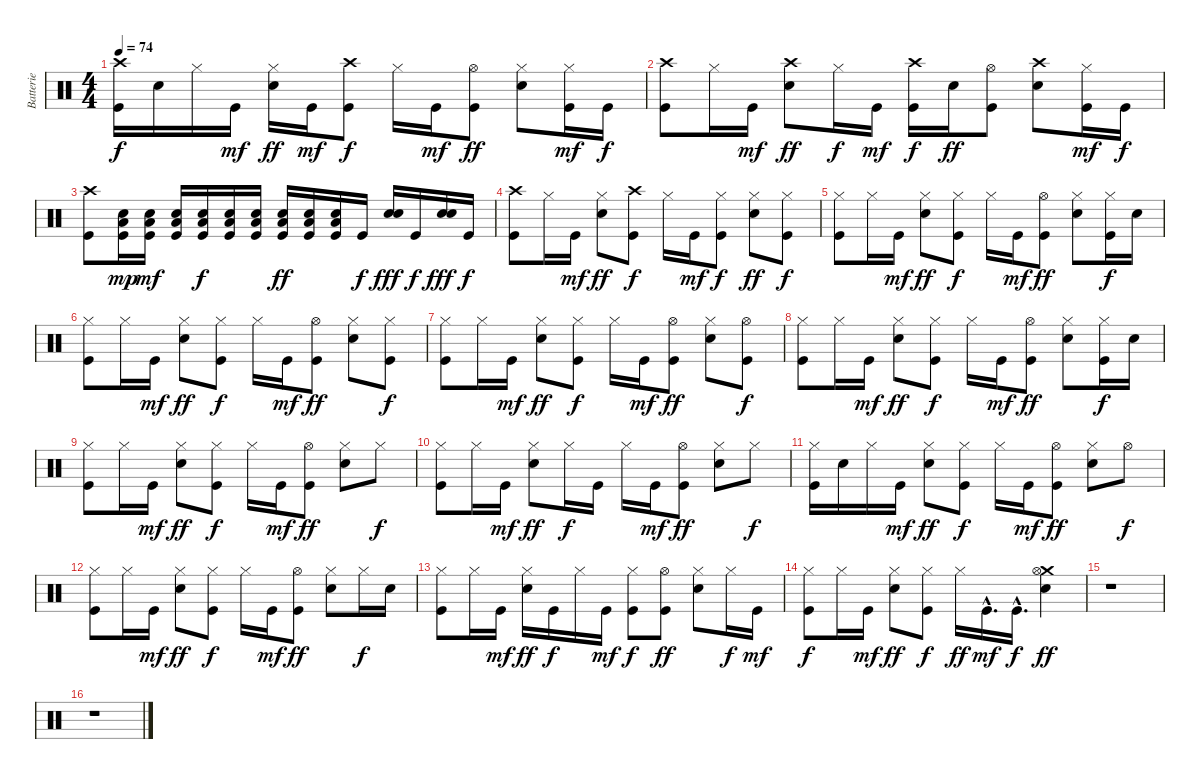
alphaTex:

\track ("Batterie" "Batterie") {instrument percussion}
\staff {score}
\articulation defaults
\ts (4 4)
\tempo 74
\clef neutral
\ks c
("Crash high (hit)" "Kick (hit)").16{dy f} "Snare (hit) 2".16 "Hi-Hat (closed)".16 "Kick (hit)".16{dy mf} ("Hi-Hat (closed)" "Snare (hit) 2").16{dy ff} "Kick (hit)".16{dy mf} ("Crash high (hit)" "Kick (hit)").8{dy f} "Hi-Hat (closed)".16 "Kick (hit)".16{dy mf} ("Hi-Hat (open)" "Kick (hit)").8{dy ff} ("Hi-Hat (closed)" "Snare (hit) 2").8 ("Hi-Hat (closed)" "Kick (hit)").16{dy mf} "Kick (hit)".16{dy f} |
("Crash high (hit)" "Kick (hit)").8 "Hi-Hat (closed)".16 "Kick (hit)".16{dy mf} ("Crash high (hit)" "Snare (hit) 2").8{dy ff} "Hi-Hat (closed)".16{dy f} "Kick (hit)".16{dy mf} ("Crash high (hit)" "Kick (hit)").16{dy f} "Snare (hit) 2".16{dy ff} ("Hi-Hat (open)" "Kick (hit)").8 ("Crash high (hit)" "Snare (hit) 2").8 ("Hi-Hat (closed)" "Kick (hit)").16{dy mf} "Kick (hit)".16{dy f} |
("Crash high (hit)" "Kick (hit)").8 ("Low Floor Tom (hit)" "Snare (hit) 2" "Kick (hit)").16{dy mp} ("Low Floor Tom (hit)" "Snare (hit) 2" "Kick (hit)").16{dy mf} ("Low Floor Tom (hit)" "Snare (hit) 2" "Kick (hit)").16 ("Low Floor Tom (hit)" "Snare (hit) 2" "Kick (hit)").16{dy f} ("Low Floor Tom (hit)" "Snare (hit) 2" "Kick (hit)").16 ("Low Floor Tom (hit)" "Snare (hit) 2" "Kick (hit)").16 ("Low Floor Tom (hit)" "Snare (hit) 2" "Kick (hit)").16{dy ff} ("Low Floor Tom (hit)" "Snare (hit) 2" "Kick (hit)").16 ("Low Floor Tom (hit)" "Snare (hit) 2" "Kick (hit)").16 "Kick (hit)".16{dy f} ("Snare (hit) 2" "Snare (hit) 2").16{bu 240 dy fff} "Kick (hit)".16{dy f} ("Snare (hit) 2" "Snare (hit) 2").16{bu 240 dy fff} "Kick (hit)".16{dy f} |
("Crash high (hit)" "Kick (hit)").8 "Hi-Hat (closed)".16 "Kick (hit)".16{dy mf} ("Hi-Hat (closed)" "Snare (hit) 2").8{dy ff} ("Crash high (hit)" "Kick (hit)").8{dy f} "Hi-Hat (closed)".16 "Kick (hit)".16{dy mf} ("Hi-Hat (closed)" "Kick (hit)").8{dy f} ("Hi-Hat (closed)" "Snare (hit) 2").8{dy ff} ("Hi-Hat (closed)" "Kick (hit)").8{dy f} |
("Hi-Hat (closed)" "Kick (hit)").8 "Hi-Hat (closed)".16 "Kick (hit)".16{dy mf} ("Hi-Hat (closed)" "Snare (hit) 2").8{dy ff} ("Hi-Hat (closed)" "Kick (hit)").8{dy f} "Hi-Hat (closed)".16 "Kick (hit)".16{dy mf} ("Hi-Hat (open)" "Kick (hit)").8{dy ff} ("Hi-Hat (closed)" "Snare (hit) 2").8 ("Hi-Hat (closed)" "Kick (hit)").16{dy f} "Snare (hit) 2".16 |
("Hi-Hat (closed)" "Kick (hit)").8 "Hi-Hat (closed)".16 "Kick (hit)".16{dy mf} ("Hi-Hat (closed)" "Snare (hit) 2").8{dy ff} ("Hi-Hat (closed)" "Kick (hit)").8{dy f} "Hi-Hat (closed)".16 "Kick (hit)".16{dy mf} ("Hi-Hat (open)" "Kick (hit)").8{dy ff} ("Hi-Hat (closed)" "Snare (hit) 2").8 ("Hi-Hat (closed)" "Kick (hit)").8{dy f} |
("Hi-Hat (closed)" "Kick (hit)").8 "Hi-Hat (closed)".16 "Kick (hit)".16{dy mf} ("Hi-Hat (closed)" "Snare (hit) 2").8{dy ff} ("Hi-Hat (closed)" "Kick (hit)").8{dy f} "Hi-Hat (closed)".16 "Kick (hit)".16{dy mf} ("Hi-Hat (open)" "Kick (hit)").8{dy ff} ("Hi-Hat (closed)" "Snare (hit) 2").8 ("Hi-Hat (open)" "Kick (hit)").8{dy f} |
("Hi-Hat (closed)" "Kick (hit)").8 "Hi-Hat (closed)".16 "Kick (hit)".16{dy mf} ("Hi-Hat (closed)" "Snare (hit) 2").8{dy ff} ("Hi-Hat (closed)" "Kick (hit)").8{dy f} "Hi-Hat (closed)".16 "Kick (hit)".16{dy mf} ("Hi-Hat (open)" "Kick (hit)").8{dy ff} ("Hi-Hat (closed)" "Snare (hit) 2").8 ("Hi-Hat (closed)" "Kick (hit)").16{dy f} "Snare (hit) 2".16 |
("Hi-Hat (closed)" "Kick (hit)").8 "Hi-Hat (closed)".16 "Kick (hit)".16{dy mf} ("Hi-Hat (closed)" "Snare (hit) 2").8{dy ff} ("Hi-Hat (closed)" "Kick (hit)").8{dy f} "Hi-Hat (closed)".16 "Kick (hit)".16{dy mf} ("Hi-Hat (open)" "Kick (hit)").8{dy ff} ("Hi-Hat (closed)" "Snare (hit) 2").8 "Hi-Hat (closed)".8{dy f} |
("Hi-Hat (closed)" "Kick (hit)").8 "Hi-Hat (closed)".16 "Kick (hit)".16{dy mf} ("Hi-Hat (closed)" "Snare (hit) 2").8{dy ff} "Hi-Hat (closed)".16{dy f} "Kick (hit)".16 "Hi-Hat (closed)".16 "Kick (hit)".16{dy mf} ("Hi-Hat (open)" "Kick (hit)").8{dy ff} ("Hi-Hat (closed)" "Snare (hit) 2").8 "Hi-Hat (closed)".8{dy f} |
("Hi-Hat (closed)" "Kick (hit)").16 "Snare (hit) 2".16 "Hi-Hat (closed)".16 "Kick (hit)".16{dy mf} ("Hi-Hat (closed)" "Snare (hit) 2").8{dy ff} ("Hi-Hat (closed)" "Kick (hit)").8{dy f} "Hi-Hat (closed)".16 "Kick (hit)".16{dy mf} ("Hi-Hat (open)" "Kick (hit)").8{dy ff} ("Hi-Hat (closed)" "Snare (hit) 2").8 "Hi-Hat (open)".8{dy f} |
("Hi-Hat (closed)" "Kick (hit)").8 "Hi-Hat (closed)".16 "Kick (hit)".16{dy mf} ("Hi-Hat (closed)" "Snare (hit) 2").8{dy ff} ("Hi-Hat (closed)" "Kick (hit)").8{dy f} "Hi-Hat (closed)".16 "Kick (hit)".16{dy mf} ("Hi-Hat (open)" "Kick (hit)").8{dy ff} ("Hi-Hat (closed)" "Snare (hit) 2").8 "Hi-Hat (closed)".16{dy f} "Snare (hit) 2".16 |
("Hi-Hat (closed)" "Kick (hit)").8 "Hi-Hat (closed)".16 "Kick (hit)".16{dy mf} ("Hi-Hat (closed)" "Snare (hit) 2").16{dy ff} "Kick (hit)".16{dy f} "Hi-Hat (closed)".16 "Kick (hit)".16{dy mf} ("Hi-Hat (closed)" "Kick (hit)").8{dy f} ("Hi-Hat (open)" "Kick (hit)").8{dy ff} ("Hi-Hat (closed)" "Snare (hit) 2").8 "Hi-Hat (closed)".16{dy f} "Kick (hit)".16{dy mf} |
("Hi-Hat (closed)" "Kick (hit)").8{dy f} "Hi-Hat (closed)".16 "Kick (hit)".16{dy mf} ("Hi-Hat (closed)" "Snare (hit) 2").8{dy ff} ("Hi-Hat (closed)" "Kick (hit)").8{dy f} "Hi-Hat (closed)".16{dy ff} "Kick (hit)"{hac}.16{d dy mf} "Kick (hit)"{hac}.16{d dy f} ("Crash medium (hit)" "Hi-Hat (open)" "Snare (hit) 2").4{dy ff} |
r.1 |
r.1
